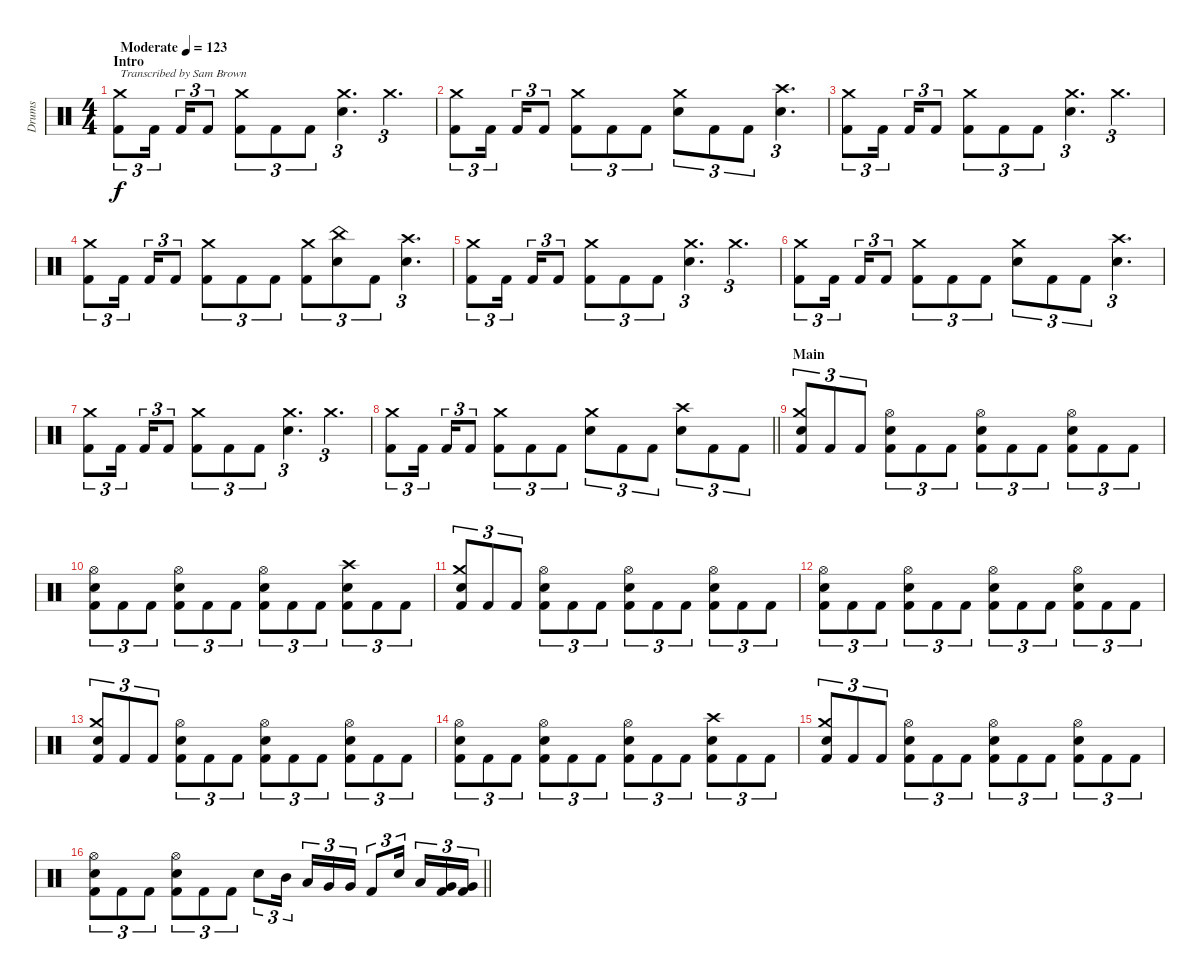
\track ("Drums" "Drums") {instrument percussion}
\staff {score}
\articulation defaults
\ts (4 4)
\section ("" "Intro")
\tempo (123 "Moderate")
\clef neutral
\ks c
("Kick (hit) 2" "Crash medium (hit)").8{tu (3 2) txt "Transcribed by Sam Brown" dy f} "Kick (hit) 2".16{tu (3 2) beam splitsecondary} "Kick (hit) 2".16{tu (3 2)} "Kick (hit) 2".8{tu (3 2)} ("Kick (hit) 2" "Crash medium (hit)").8{tu (3 2)} "Kick (hit) 2".8{tu (3 2)} "Kick (hit) 2".8{tu (3 2)} ("Snare (hit) 2" "Crash medium (hit)").4{d tu (3 2)} "Crash medium (hit)".4{d tu (3 2)} |
("Kick (hit) 2" "Crash medium (hit)").8{tu (3 2)} "Kick (hit) 2".16{tu (3 2) beam splitsecondary} "Kick (hit) 2".16{tu (3 2)} "Kick (hit) 2".8{tu (3 2)} ("Kick (hit) 2" "Crash medium (hit)").8{tu (3 2)} "Kick (hit) 2".8{tu (3 2)} "Kick (hit) 2".8{tu (3 2)} ("Snare (hit) 2" "Crash medium (hit)").8{tu (3 2)} "Kick (hit) 2".8{tu (3 2)} "Kick (hit) 2".8{tu (3 2)} ("Snare (hit) 2" "Crash high (hit)").4{d tu (3 2)} |
("Kick (hit) 2" "Crash medium (hit)").8{tu (3 2)} "Kick (hit) 2".16{tu (3 2) beam splitsecondary} "Kick (hit) 2".16{tu (3 2)} "Kick (hit) 2".8{tu (3 2)} ("Kick (hit) 2" "Crash medium (hit)").8{tu (3 2)} "Kick (hit) 2".8{tu (3 2)} "Kick (hit) 2".8{tu (3 2)} ("Snare (hit) 2" "Crash medium (hit)").4{d tu (3 2)} "Crash medium (hit)".4{d tu (3 2)} |
("Kick (hit) 2" "Crash medium (hit)").8{tu (3 2)} "Kick (hit) 2".16{tu (3 2) beam splitsecondary} "Kick (hit) 2".16{tu (3 2)} "Kick (hit) 2".8{tu (3 2)} ("Kick (hit) 2" "Crash medium (hit)").8{tu (3 2)} "Kick (hit) 2".8{tu (3 2)} "Kick (hit) 2".8{tu (3 2)} ("Kick (hit) 2" "Crash medium (hit)").8{tu (3 2)} ("Snare (hit) 2" "China (hit)").8{tu (3 2)} "Kick (hit) 2".8{tu (3 2)} ("Snare (hit) 2" "Crash high (hit)").4{d tu (3 2)} |
("Kick (hit) 2" "Crash medium (hit)").8{tu (3 2)} "Kick (hit) 2".16{tu (3 2) beam splitsecondary} "Kick (hit) 2".16{tu (3 2)} "Kick (hit) 2".8{tu (3 2)} ("Kick (hit) 2" "Crash medium (hit)").8{tu (3 2)} "Kick (hit) 2".8{tu (3 2)} "Kick (hit) 2".8{tu (3 2)} ("Snare (hit) 2" "Crash medium (hit)").4{d tu (3 2)} "Crash medium (hit)".4{d tu (3 2)} |
("Kick (hit) 2" "Crash medium (hit)").8{tu (3 2)} "Kick (hit) 2".16{tu (3 2) beam splitsecondary} "Kick (hit) 2".16{tu (3 2)} "Kick (hit) 2".8{tu (3 2)} ("Kick (hit) 2" "Crash medium (hit)").8{tu (3 2)} "Kick (hit) 2".8{tu (3 2)} "Kick (hit) 2".8{tu (3 2)} ("Snare (hit) 2" "Crash medium (hit)").8{tu (3 2)} "Kick (hit) 2".8{tu (3 2)} "Kick (hit) 2".8{tu (3 2)} ("Snare (hit) 2" "Crash high (hit)").4{d tu (3 2)} |
("Kick (hit) 2" "Crash medium (hit)").8{tu (3 2)} "Kick (hit) 2".16{tu (3 2) beam splitsecondary} "Kick (hit) 2".16{tu (3 2)} "Kick (hit) 2".8{tu (3 2)} ("Kick (hit) 2" "Crash medium (hit)").8{tu (3 2)} "Kick (hit) 2".8{tu (3 2)} "Kick (hit) 2".8{tu (3 2)} ("Snare (hit) 2" "Crash medium (hit)").4{d tu (3 2)} "Crash medium (hit)".4{d tu (3 2)} |
\barLineRight lightlight
("Kick (hit) 2" "Crash medium (hit)").8{tu (3 2)} "Kick (hit) 2".16{tu (3 2) beam splitsecondary} "Kick (hit) 2".16{tu (3 2)} "Kick (hit) 2".8{tu (3 2)} ("Kick (hit) 2" "Crash medium (hit)").8{tu (3 2)} "Kick (hit) 2".8{tu (3 2)} "Kick (hit) 2".8{tu (3 2)} ("Snare (hit) 2" "Crash medium (hit)").8{tu (3 2)} "Kick (hit) 2".8{tu (3 2)} "Kick (hit) 2".8{tu (3 2)} ("Snare (hit) 2" "Crash high (hit)").8{tu (3 2)} "Kick (hit) 2".8{tu (3 2)} "Kick (hit) 2".8{tu (3 2)} |
\section ("" "Main")
("Kick (hit) 2" "Snare (hit) 2" "Crash medium (hit)").8{tu (3 2)} "Kick (hit) 2".8{tu (3 2)} "Kick (hit) 2".8{tu (3 2)} ("Kick (hit) 2" "Snare (hit) 2" "Hi-Hat (open)").8{tu (3 2)} "Kick (hit) 2".8{tu (3 2)} "Kick (hit) 2".8{tu (3 2)} ("Kick (hit) 2" "Snare (hit) 2" "Hi-Hat (open)").8{tu (3 2)} "Kick (hit) 2".8{tu (3 2)} "Kick (hit) 2".8{tu (3 2)} ("Kick (hit) 2" "Snare (hit) 2" "Hi-Hat (open)").8{tu (3 2)} "Kick (hit) 2".8{tu (3 2)} "Kick (hit) 2".8{tu (3 2)} |
("Kick (hit) 2" "Snare (hit) 2" "Hi-Hat (open)").8{tu (3 2)} "Kick (hit) 2".8{tu (3 2)} "Kick (hit) 2".8{tu (3 2)} ("Kick (hit) 2" "Snare (hit) 2" "Hi-Hat (open)").8{tu (3 2)} "Kick (hit) 2".8{tu (3 2)} "Kick (hit) 2".8{tu (3 2)} ("Kick (hit) 2" "Snare (hit) 2" "Hi-Hat (open)").8{tu (3 2)} "Kick (hit) 2".8{tu (3 2)} "Kick (hit) 2".8{tu (3 2)} ("Kick (hit) 2" "Snare (hit) 2" "Crash high (hit)").8{tu (3 2)} "Kick (hit) 2".8{tu (3 2)} "Kick (hit) 2".8{tu (3 2)} |
("Kick (hit) 2" "Snare (hit) 2" "Crash medium (hit)").8{tu (3 2)} "Kick (hit) 2".8{tu (3 2)} "Kick (hit) 2".8{tu (3 2)} ("Kick (hit) 2" "Snare (hit) 2" "Hi-Hat (open)").8{tu (3 2)} "Kick (hit) 2".8{tu (3 2)} "Kick (hit) 2".8{tu (3 2)} ("Kick (hit) 2" "Snare (hit) 2" "Hi-Hat (open)").8{tu (3 2)} "Kick (hit) 2".8{tu (3 2)} "Kick (hit) 2".8{tu (3 2)} ("Kick (hit) 2" "Snare (hit) 2" "Hi-Hat (open)").8{tu (3 2)} "Kick (hit) 2".8{tu (3 2)} "Kick (hit) 2".8{tu (3 2)} |
("Kick (hit) 2" "Snare (hit) 2" "Hi-Hat (open)").8{tu (3 2)} "Kick (hit) 2".8{tu (3 2)} "Kick (hit) 2".8{tu (3 2)} ("Kick (hit) 2" "Snare (hit) 2" "Hi-Hat (open)").8{tu (3 2)} "Kick (hit) 2".8{tu (3 2)} "Kick (hit) 2".8{tu (3 2)} ("Kick (hit) 2" "Snare (hit) 2" "Hi-Hat (open)").8{tu (3 2)} "Kick (hit) 2".8{tu (3 2)} "Kick (hit) 2".8{tu (3 2)} ("Kick (hit) 2" "Snare (hit) 2" "Hi-Hat (open)").8{tu (3 2)} "Kick (hit) 2".8{tu (3 2)} "Kick (hit) 2".8{tu (3 2)} |
("Kick (hit) 2" "Snare (hit) 2" "Crash medium (hit)").8{tu (3 2)} "Kick (hit) 2".8{tu (3 2)} "Kick (hit) 2".8{tu (3 2)} ("Kick (hit) 2" "Snare (hit) 2" "Hi-Hat (open)").8{tu (3 2)} "Kick (hit) 2".8{tu (3 2)} "Kick (hit) 2".8{tu (3 2)} ("Kick (hit) 2" "Snare (hit) 2" "Hi-Hat (open)").8{tu (3 2)} "Kick (hit) 2".8{tu (3 2)} "Kick (hit) 2".8{tu (3 2)} ("Kick (hit) 2" "Snare (hit) 2" "Hi-Hat (open)").8{tu (3 2)} "Kick (hit) 2".8{tu (3 2)} "Kick (hit) 2".8{tu (3 2)} |
("Kick (hit) 2" "Snare (hit) 2" "Hi-Hat (open)").8{tu (3 2)} "Kick (hit) 2".8{tu (3 2)} "Kick (hit) 2".8{tu (3 2)} ("Kick (hit) 2" "Snare (hit) 2" "Hi-Hat (open)").8{tu (3 2)} "Kick (hit) 2".8{tu (3 2)} "Kick (hit) 2".8{tu (3 2)} ("Kick (hit) 2" "Snare (hit) 2" "Hi-Hat (open)").8{tu (3 2)} "Kick (hit) 2".8{tu (3 2)} "Kick (hit) 2".8{tu (3 2)} ("Kick (hit) 2" "Snare (hit) 2" "Crash high (hit)").8{tu (3 2)} "Kick (hit) 2".8{tu (3 2)} "Kick (hit) 2".8{tu (3 2)} |
("Kick (hit) 2" "Snare (hit) 2" "Crash medium (hit)").8{tu (3 2)} "Kick (hit) 2".8{tu (3 2)} "Kick (hit) 2".8{tu (3 2)} ("Kick (hit) 2" "Snare (hit) 2" "Hi-Hat (open)").8{tu (3 2)} "Kick (hit) 2".8{tu (3 2)} "Kick (hit) 2".8{tu (3 2)} ("Kick (hit) 2" "Snare (hit) 2" "Hi-Hat (open)").8{tu (3 2)} "Kick (hit) 2".8{tu (3 2)} "Kick (hit) 2".8{tu (3 2)} ("Kick (hit) 2" "Snare (hit) 2" "Hi-Hat (open)").8{tu (3 2)} "Kick (hit) 2".8{tu (3 2)} "Kick (hit) 2".8{tu (3 2)} |
\barLineRight lightlight
("Kick (hit) 2" "Snare (hit) 2" "Hi-Hat (open)").8{tu (3 2)} "Kick (hit) 2".8{tu (3 2)} "Kick (hit) 2".8{tu (3 2)} ("Kick (hit) 2" "Snare (hit) 2" "Hi-Hat (open)").8{tu (3 2)} "Kick (hit) 2".8{tu (3 2)} "Kick (hit) 2".8{tu (3 2)} "Snare (hit) 2".8{tu (3 2)} "Mid Tom (hit)".16{tu (3 2) beam splitsecondary} "Low Tom (hit)".16{tu (3 2)} "Very Low Tom (hit)".16{tu (3 2)} "Very Low Tom (hit)".16{tu (3 2)} "Kick (hit) 2".8{tu (3 2)} "Snare (hit) 2".16{tu (3 2) beam splitsecondary} "Low Tom (hit)".16{tu (3 2)} ("Kick (hit) 2" "Very Low Tom (hit)").16{tu (3 2)} ("Kick (hit) 2" "Very Low Tom (hit)").16{tu (3 2)}
